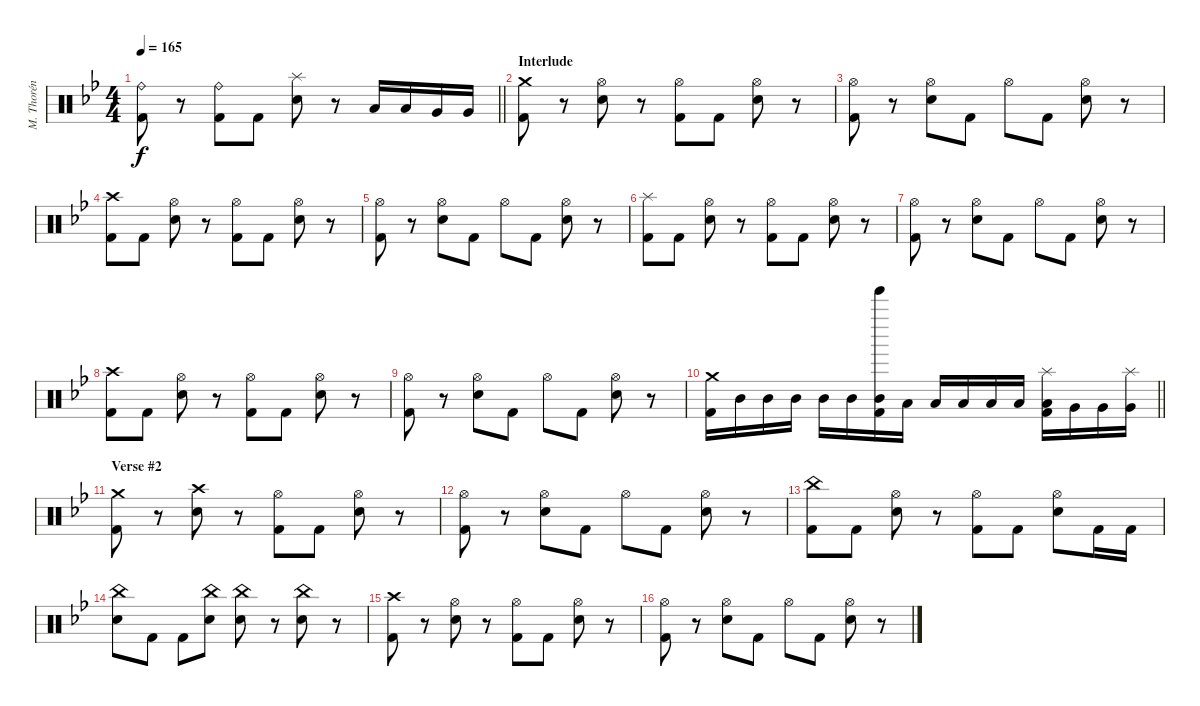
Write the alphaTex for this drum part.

\track ("M. Thorén (Drums)" "M. Thorén ") {instrument percussion}
\staff {score}
\articulation defaults
\ts (4 4)
\tempo 165
\clef neutral
\barLineRight lightlight
\ks gminor
("Ride (bell)" "Kick (hit) 2").8{dy f} r.8 ("Ride (bell)" "Kick (hit) 2").8 "Kick (hit) 2".8 ("Splash (hit)" "Electric Snare (hit)").8 r.8 "Low Tom (hit)".16 "Low Tom (hit)".16 "Very Low Tom (hit)".16 "Very Low Tom (hit)".16 |
\section ("" "Interlude")
("Crash medium (hit)" "Kick (hit) 2").8 r.8 ("Hi-Hat (open)" "Electric Snare (hit)").8 r.8 ("Hi-Hat (open)" "Kick (hit) 2").8 "Kick (hit) 2".8 ("Hi-Hat (open)" "Electric Snare (hit)").8 r.8 |
("Hi-Hat (open)" "Kick (hit) 2").8 r.8 ("Hi-Hat (open)" "Electric Snare (hit)").8 "Kick (hit) 2".8 "Hi-Hat (open)".8 "Kick (hit) 2".8 ("Hi-Hat (open)" "Electric Snare (hit)").8 r.8 |
("Crash high (hit)" "Kick (hit) 2").8 "Kick (hit) 2".8 ("Hi-Hat (open)" "Electric Snare (hit)").8 r.8 ("Hi-Hat (open)" "Kick (hit) 2").8 "Kick (hit) 2".8 ("Hi-Hat (open)" "Electric Snare (hit)").8 r.8 |
("Hi-Hat (open)" "Kick (hit) 2").8 r.8 ("Hi-Hat (open)" "Electric Snare (hit)").8 "Kick (hit) 2".8 "Hi-Hat (open)".8 "Kick (hit) 2".8 ("Hi-Hat (open)" "Electric Snare (hit)").8 r.8 |
("Splash (hit)" "Kick (hit) 2").8 "Kick (hit) 2".8 ("Hi-Hat (open)" "Electric Snare (hit)").8 r.8 ("Hi-Hat (open)" "Kick (hit) 2").8 "Kick (hit) 2".8 ("Hi-Hat (open)" "Electric Snare (hit)").8 r.8 |
("Hi-Hat (open)" "Kick (hit) 2").8 r.8 ("Hi-Hat (open)" "Electric Snare (hit)").8 "Kick (hit) 2".8 "Hi-Hat (open)".8 "Kick (hit) 2".8 ("Hi-Hat (open)" "Electric Snare (hit)").8 r.8 |
("Crash high (hit)" "Kick (hit) 2").8 "Kick (hit) 2".8 ("Hi-Hat (open)" "Electric Snare (hit)").8 r.8 ("Hi-Hat (open)" "Kick (hit) 2").8 "Kick (hit) 2".8 ("Hi-Hat (open)" "Electric Snare (hit)").8 r.8 |
("Hi-Hat (open)" "Kick (hit) 2").8 r.8 ("Hi-Hat (open)" "Electric Snare (hit)").8 "Kick (hit) 2".8 "Hi-Hat (open)".8 "Kick (hit) 2".8 ("Hi-Hat (open)" "Electric Snare (hit)").8 r.8 |
\barLineRight lightlight
("Crash medium (hit)" "Kick (hit) 2").16 "Mid Tom (hit)".16 "Mid Tom (hit)".16 "Mid Tom (hit)".16 "Mid Tom (hit)".16 "Mid Tom (hit)".16 ("Tinkle Bell (hit)" "Mid Tom (hit)" "Kick (hit) 2").16 "Low Tom (hit)".16 "Low Tom (hit)".16 "Low Tom (hit)".16 "Low Tom (hit)".16 "Low Tom (hit)".16 ("Splash (hit)" "Low Tom (hit)" "Kick (hit) 2").16 "Very Low Tom (hit)".16 "Very Low Tom (hit)".16 ("Splash (hit)" "Very Low Tom (hit)").16 |
\section ("" "Verse #2")
("Crash medium (hit)" "Kick (hit) 2").8 r.8 ("Crash high (hit)" "Electric Snare (hit)").8 r.8 ("Hi-Hat (open)" "Kick (hit) 2").8 "Kick (hit) 2".8 ("Hi-Hat (open)" "Electric Snare (hit)").8 r.8 |
("Hi-Hat (open)" "Kick (hit) 2").8 r.8 ("Hi-Hat (open)" "Electric Snare (hit)").8 "Kick (hit) 2".8 "Hi-Hat (open)".8 "Kick (hit) 2".8 ("Hi-Hat (open)" "Electric Snare (hit)").8 r.8 |
("China (hit)" "Kick (hit) 2").8 "Kick (hit) 2".8 ("Hi-Hat (open)" "Electric Snare (hit)").8 r.8 ("Hi-Hat (open)" "Kick (hit) 2").8 "Kick (hit) 2".8 ("Hi-Hat (open)" "Electric Snare (hit)").8 "Kick (hit) 2".16 "Kick (hit) 2".16 |
("China (hit)" "Electric Snare (hit)").8 "Kick (hit) 2".8 "Kick (hit) 2".8 ("China (hit)" "Electric Snare (hit)").8 ("China (hit)" "Electric Snare (hit)").8 r.8 ("China (hit)" "Electric Snare (hit)").8 r.8 |
("Crash high (hit)" "Kick (hit) 2").8 r.8 ("Hi-Hat (open)" "Electric Snare (hit)").8 r.8 ("Hi-Hat (open)" "Kick (hit) 2").8 "Kick (hit) 2".8 ("Hi-Hat (open)" "Electric Snare (hit)").8 r.8 |
("Hi-Hat (open)" "Kick (hit) 2").8 r.8 ("Hi-Hat (open)" "Electric Snare (hit)").8 "Kick (hit) 2".8 "Hi-Hat (open)".8 "Kick (hit) 2".8 ("Hi-Hat (open)" "Electric Snare (hit)").8 r.8
